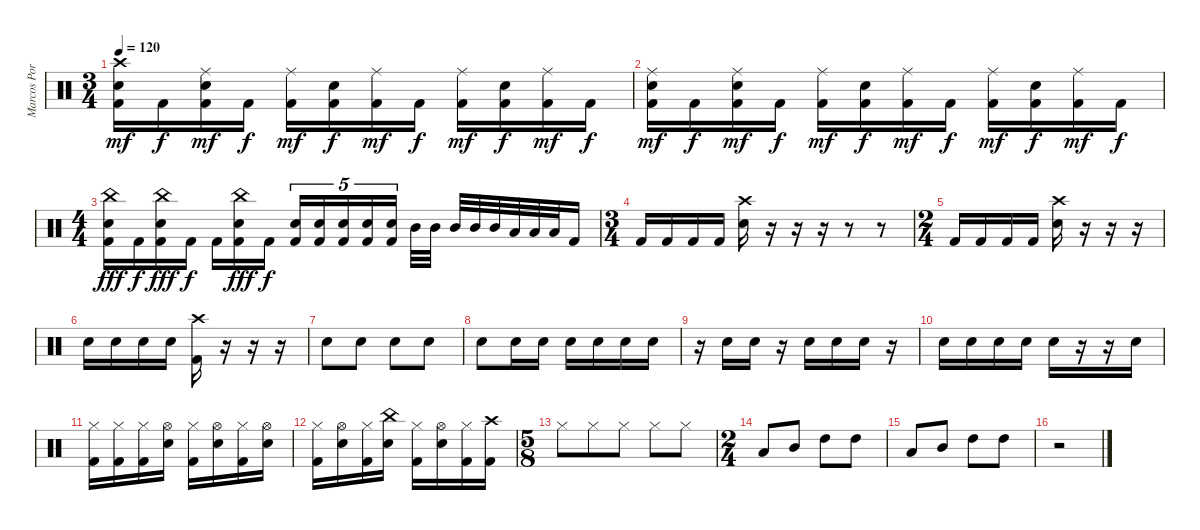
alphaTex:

\track ("Marcos Portinol" "Marcos Por") {instrument percussion}
\staff {score}
\articulation defaults
\ts (3 4)
\tempo 120
\clef neutral
\ks c
("Kick (hit) 2" "Electric Snare (hit)" "Crash high (hit)").16{dy mf} "Kick (hit) 2".16{dy f} ("Kick (hit) 2" "Electric Snare (hit)" "Ride (middle)").16{dy mf} "Kick (hit) 2".16{dy f} ("Kick (hit) 2" "Ride (middle)").16{dy mf} ("Kick (hit) 2" "Electric Snare (hit)").16{dy f} ("Kick (hit) 2" "Ride (middle)").16{dy mf} "Kick (hit) 2".16{dy f} ("Kick (hit) 2" "Ride (middle)").16{dy mf} ("Kick (hit) 2" "Electric Snare (hit)").16{dy f} ("Kick (hit) 2" "Ride (middle)").16{dy mf} "Kick (hit) 2".16{dy f} |
("Kick (hit) 2" "Electric Snare (hit)" "Ride (middle)").16{dy mf} "Kick (hit) 2".16{dy f} ("Kick (hit) 2" "Electric Snare (hit)" "Ride (middle)").16{dy mf} "Kick (hit) 2".16{dy f} ("Kick (hit) 2" "Ride (middle)").16{dy mf} ("Kick (hit) 2" "Electric Snare (hit)").16{dy f} ("Kick (hit) 2" "Ride (middle)").16{dy mf} "Kick (hit) 2".16{dy f} ("Kick (hit) 2" "Ride (middle)").16{dy mf} ("Kick (hit) 2" "Electric Snare (hit)").16{dy f} ("Kick (hit) 2" "Ride (middle)").16{dy mf} "Kick (hit) 2".16{dy f} |
\ts (4 4)
("Kick (hit) 2" "Electric Snare (hit)" "China (hit)").16{dy fff} "Kick (hit) 2".16{dy f} ("Kick (hit) 2" "Electric Snare (hit)" "China (hit)").16{dy fff} "Kick (hit) 2".16{dy f} "Kick (hit) 2".16 ("Kick (hit) 2" "Electric Snare (hit)" "China (hit)").16{dy fff} "Kick (hit) 2".16{dy f} ("Kick (hit) 2" "Electric Snare (hit)").16{tu (5 4)} ("Kick (hit) 2" "Electric Snare (hit)").16{tu (5 4)} ("Kick (hit) 2" "Electric Snare (hit)").16{tu (5 4)} ("Kick (hit) 2" "Electric Snare (hit)").16{tu (5 4)} ("Kick (hit) 2" "Electric Snare (hit)").16{tu (5 4)} "Mid Tom (hit)".32 "Mid Tom (hit)".32 "Mid Tom (hit)".32 "Mid Tom (hit)".32 "Mid Tom (hit)".32 "Low Tom (hit)".32 "Low Tom (hit)".32 "Low Tom (hit)".32 "Kick (hit) 2".16 |
\ts (3 4)
"Kick (hit) 2".16 "Kick (hit) 2".16 "Kick (hit) 2".16 "Kick (hit) 2".16 ("Electric Snare (hit)" "Crash high (hit)").16 r.16 r.16 r.16 r.8 r.8 |
\ts (2 4)
"Kick (hit) 2".16 "Kick (hit) 2".16 "Kick (hit) 2".16 "Kick (hit) 2".16 ("Electric Snare (hit)" "Crash high (hit)").16 r.16 r.16 r.16 |
"Electric Snare (hit)".16 "Electric Snare (hit)".16 "Electric Snare (hit)".16 "Electric Snare (hit)".16 ("Kick (hit) 2" "Crash high (hit)").16 r.16 r.16 r.16 |
"Electric Snare (hit)".8 "Electric Snare (hit)".8 "Electric Snare (hit)".8 "Electric Snare (hit)".8 |
"Electric Snare (hit)".8 "Electric Snare (hit)".16 "Electric Snare (hit)".16 "Electric Snare (hit)".16 "Electric Snare (hit)".16 "Electric Snare (hit)".16 "Electric Snare (hit)".16 |
r.16 "Electric Snare (hit)".16 "Electric Snare (hit)".16 r.16 "Electric Snare (hit)".16 "Electric Snare (hit)".16 "Electric Snare (hit)".16 r.16 |
"Electric Snare (hit)".16 "Electric Snare (hit)".16 "Electric Snare (hit)".16 "Electric Snare (hit)".16 "Electric Snare (hit)".16 r.16 r.16 "Electric Snare (hit)".16 |
("Kick (hit) 2" "Hi-Hat (closed)").16 ("Kick (hit) 2" "Hi-Hat (closed)").16 ("Kick (hit) 2" "Hi-Hat (closed)").16 ("Electric Snare (hit)" "Hi-Hat (open)").16 ("Kick (hit) 2" "Hi-Hat (closed)").16 ("Electric Snare (hit)" "Hi-Hat (open)").16 ("Kick (hit) 2" "Hi-Hat (closed)").16 ("Electric Snare (hit)" "Hi-Hat (open)").16 |
("Kick (hit) 2" "Hi-Hat (closed)").16 ("Electric Snare (hit)" "Hi-Hat (open)").16 ("Kick (hit) 2" "Hi-Hat (closed)").16 ("Electric Snare (hit)" "China (hit)").16 ("Kick (hit) 2" "Hi-Hat (closed)").16 ("Electric Snare (hit)" "Hi-Hat (open)").16 ("Kick (hit) 2" "Hi-Hat (closed)").16 ("Kick (hit) 2" "Crash high (hit)").16 |
\ts (5 8)
"Hi-Hat (closed)".8 "Hi-Hat (closed)".8 "Hi-Hat (closed)".8 "Hi-Hat (closed)".8 "Hi-Hat (closed)".8 |
\ts (2 4)
"Low Tom (hit)".8 "Mid Tom (hit)".8 "High Tom (hit)".8 "High Tom (hit)".8 |
"Low Tom (hit)".8 "Mid Tom (hit)".8 "High Tom (hit)".8 "High Tom (hit)".8 |
r.2
